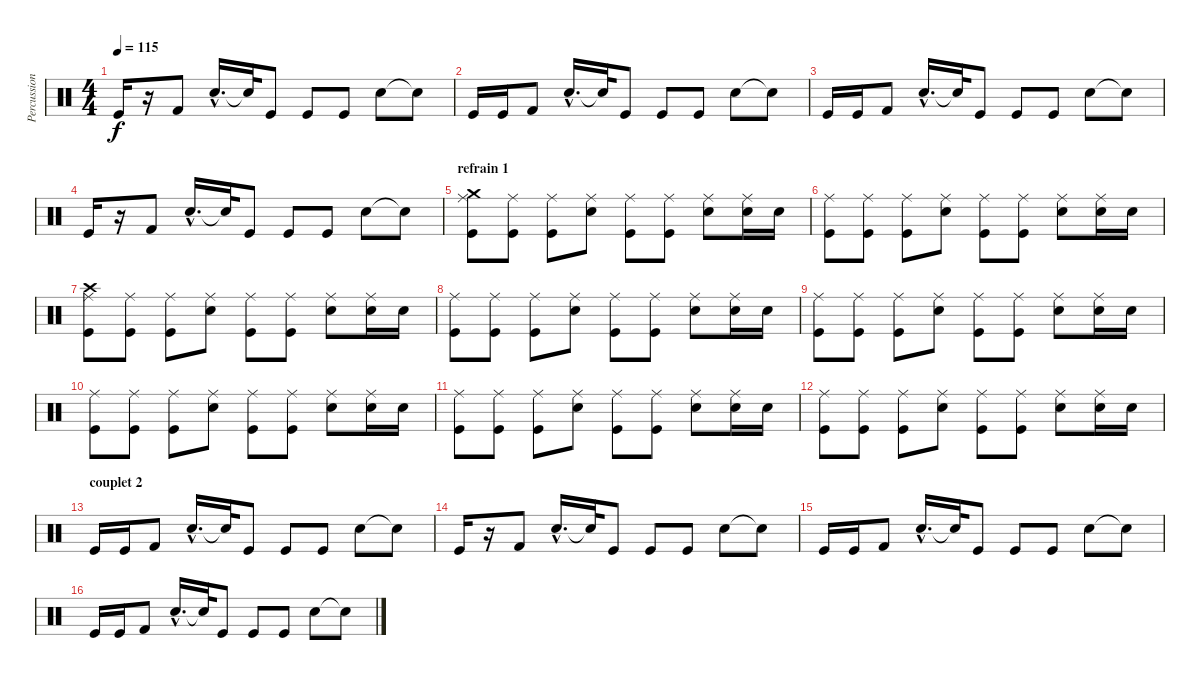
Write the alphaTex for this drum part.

\track ("Percussions" "Percussion") {instrument percussion}
\staff {score}
\articulation defaults
\ts (4 4)
\tempo 115
\clef neutral
\ks c "Kick (hit)".16{dy f}
r.16 "Kick (hit) 2".8 "Electric Snare (hit)"{hac}.16{d} "Snare (hit)"{t}.32 "Kick (hit)".8 "Kick (hit)".8 "Kick (hit)".8 "Electric Snare (hit)".8 "Snare (hit)"{t}.8 |
"Kick (hit)".16 "Kick (hit)".16 "Kick (hit) 2".8 "Electric Snare (hit)"{hac}.16{d} "Snare (hit)"{t}.32 "Kick (hit)".8 "Kick (hit)".8 "Kick (hit)".8 "Electric Snare (hit)".8 "Snare (hit)"{t}.8 |
"Kick (hit)".16 "Kick (hit)".16 "Kick (hit) 2".8 "Electric Snare (hit)"{hac}.16{d} "Snare (hit)"{t}.32 "Kick (hit)".8 "Kick (hit)".8 "Kick (hit)".8 "Electric Snare (hit)".8 "Snare (hit)"{t}.8 |
"Kick (hit)".16 r.16 "Kick (hit) 2".8 "Electric Snare (hit)"{hac}.16{d} "Snare (hit)"{t}.32 "Kick (hit)".8 "Kick (hit)".8 "Kick (hit)".8 "Electric Snare (hit)".8 "Snare (hit)"{t}.8 |
\section ("" "refrain 1")
("Ride (middle)" "Crash medium (hit)" "Kick (hit)").8 ("Ride (middle)" "Kick (hit)").8 ("Ride (middle)" "Kick (hit)").8 ("Ride (middle)" "Electric Snare (hit)").8 ("Ride (middle)" "Kick (hit)").8 ("Ride (middle)" "Kick (hit)").8 ("Ride (middle)" "Electric Snare (hit)").8 ("Ride (middle)" "Electric Snare (hit)").16 "Electric Snare (hit)".16 |
("Ride (middle)" "Kick (hit)").8 ("Ride (middle)" "Kick (hit)").8 ("Ride (middle)" "Kick (hit)").8 ("Ride (middle)" "Electric Snare (hit)").8 ("Ride (middle)" "Kick (hit)").8 ("Ride (middle)" "Kick (hit)").8 ("Ride (middle)" "Electric Snare (hit)").8 ("Ride (middle)" "Electric Snare (hit)").16 "Electric Snare (hit)".16 |
("Ride (middle)" "Crash high (hit)" "Kick (hit)").8 ("Ride (middle)" "Kick (hit)").8 ("Ride (middle)" "Kick (hit)").8 ("Ride (middle)" "Electric Snare (hit)").8 ("Ride (middle)" "Kick (hit)").8 ("Ride (middle)" "Kick (hit)").8 ("Ride (middle)" "Electric Snare (hit)").8 ("Ride (middle)" "Electric Snare (hit)").16 "Electric Snare (hit)".16 |
("Ride (middle)" "Kick (hit)").8 ("Ride (middle)" "Kick (hit)").8 ("Ride (middle)" "Kick (hit)").8 ("Ride (middle)" "Electric Snare (hit)").8 ("Ride (middle)" "Kick (hit)").8 ("Ride (middle)" "Kick (hit)").8 ("Ride (middle)" "Electric Snare (hit)").8 ("Ride (middle)" "Electric Snare (hit)").16 "Electric Snare (hit)".16 |
("Ride (middle)" "Kick (hit)").8 ("Ride (middle)" "Kick (hit)").8 ("Ride (middle)" "Kick (hit)").8 ("Ride (middle)" "Electric Snare (hit)").8 ("Ride (middle)" "Kick (hit)").8 ("Ride (middle)" "Kick (hit)").8 ("Ride (middle)" "Electric Snare (hit)").8 ("Ride (middle)" "Electric Snare (hit)").16 "Electric Snare (hit)".16 |
("Ride (middle)" "Kick (hit)").8 ("Ride (middle)" "Kick (hit)").8 ("Ride (middle)" "Kick (hit)").8 ("Ride (middle)" "Electric Snare (hit)").8 ("Ride (middle)" "Kick (hit)").8 ("Ride (middle)" "Kick (hit)").8 ("Ride (middle)" "Electric Snare (hit)").8 ("Ride (middle)" "Electric Snare (hit)").16 "Electric Snare (hit)".16 |
("Ride (middle)" "Kick (hit)").8 ("Ride (middle)" "Kick (hit)").8 ("Ride (middle)" "Kick (hit)").8 ("Ride (middle)" "Electric Snare (hit)").8 ("Ride (middle)" "Kick (hit)").8 ("Ride (middle)" "Kick (hit)").8 ("Ride (middle)" "Electric Snare (hit)").8 ("Ride (middle)" "Electric Snare (hit)").16 "Electric Snare (hit)".16 |
("Ride (middle)" "Kick (hit)").8 ("Ride (middle)" "Kick (hit)").8 ("Ride (middle)" "Kick (hit)").8 ("Ride (middle)" "Electric Snare (hit)").8 ("Ride (middle)" "Kick (hit)").8 ("Ride (middle)" "Kick (hit)").8 ("Ride (middle)" "Electric Snare (hit)").8 ("Ride (middle)" "Electric Snare (hit)").16 "Electric Snare (hit)".16 |
\section ("" "couplet 2")
"Kick (hit)".16 "Kick (hit)".16 "Kick (hit) 2".8 "Electric Snare (hit)"{hac}.16{d} "Snare (hit)"{t}.32 "Kick (hit)".8 "Kick (hit)".8 "Kick (hit)".8 "Electric Snare (hit)".8 "Snare (hit)"{t}.8 |
"Kick (hit)".16 r.16 "Kick (hit) 2".8 "Electric Snare (hit)"{hac}.16{d} "Snare (hit)"{t}.32 "Kick (hit)".8 "Kick (hit)".8 "Kick (hit)".8 "Electric Snare (hit)".8 "Snare (hit)"{t}.8 |
"Kick (hit)".16 "Kick (hit)".16 "Kick (hit) 2".8 "Electric Snare (hit)"{hac}.16{d} "Snare (hit)"{t}.32 "Kick (hit)".8 "Kick (hit)".8 "Kick (hit)".8 "Electric Snare (hit)".8 "Snare (hit)"{t}.8 |
"Kick (hit)".16 "Kick (hit)".16 "Kick (hit) 2".8 "Electric Snare (hit)"{hac}.16{d} "Snare (hit)"{t}.32 "Kick (hit)".8 "Kick (hit)".8 "Kick (hit)".8 "Electric Snare (hit)".8 "Snare (hit)"{t}.8
